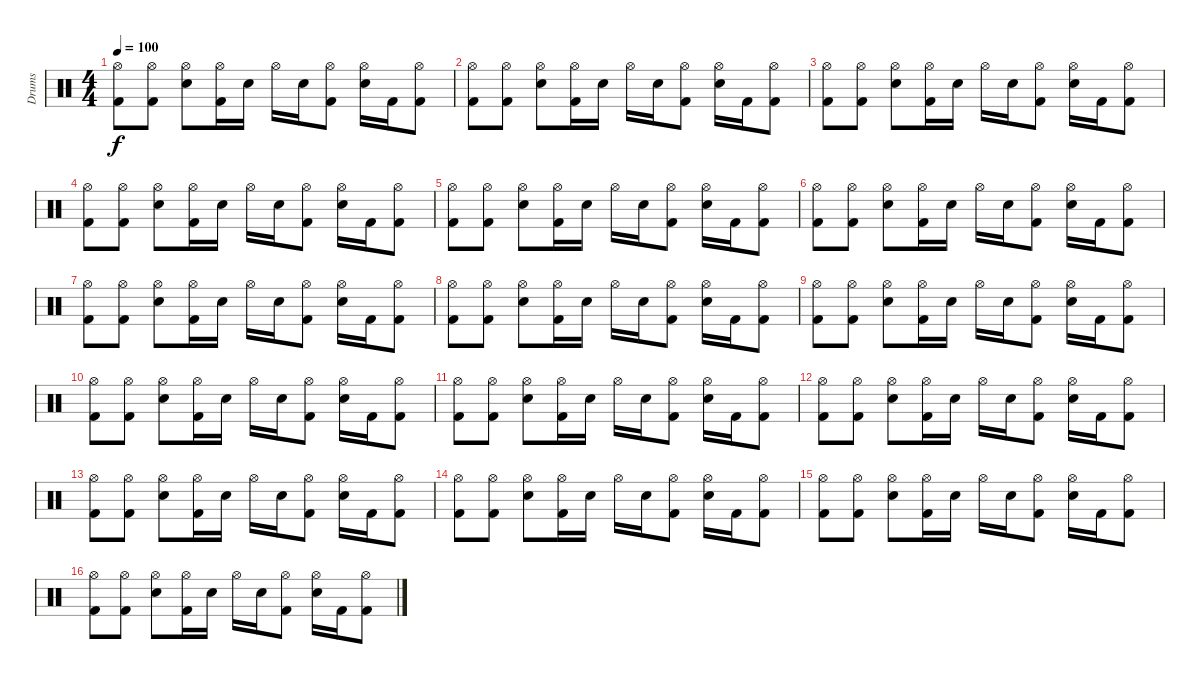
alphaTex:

\track ("Drums" "Drums") {instrument percussion}
\staff {score}
\articulation defaults
\ts (4 4)
\tempo 100
\clef neutral
\ks c
("Hi-Hat (open)" "Kick (hit) 2").8{dy f} ("Hi-Hat (open)" "Kick (hit) 2").8 ("Hi-Hat (open)" "Snare (hit) 2").8 ("Hi-Hat (open)" "Kick (hit) 2").16 "Snare (hit) 2".16 "Hi-Hat (open)".16 "Snare (hit) 2".16 ("Hi-Hat (open)" "Kick (hit) 2").8 ("Hi-Hat (open)" "Snare (hit) 2").16 "Kick (hit) 2".16 ("Hi-Hat (open)" "Kick (hit) 2").8 |
("Hi-Hat (open)" "Kick (hit) 2").8 ("Hi-Hat (open)" "Kick (hit) 2").8 ("Hi-Hat (open)" "Snare (hit) 2").8 ("Hi-Hat (open)" "Kick (hit) 2").16 "Snare (hit) 2".16 "Hi-Hat (open)".16 "Snare (hit) 2".16 ("Hi-Hat (open)" "Kick (hit) 2").8 ("Hi-Hat (open)" "Snare (hit) 2").16 "Kick (hit) 2".16 ("Hi-Hat (open)" "Kick (hit) 2").8 |
("Hi-Hat (open)" "Kick (hit) 2").8 ("Hi-Hat (open)" "Kick (hit) 2").8 ("Hi-Hat (open)" "Snare (hit) 2").8 ("Hi-Hat (open)" "Kick (hit) 2").16 "Snare (hit) 2".16 "Hi-Hat (open)".16 "Snare (hit) 2".16 ("Hi-Hat (open)" "Kick (hit) 2").8 ("Hi-Hat (open)" "Snare (hit) 2").16 "Kick (hit) 2".16 ("Hi-Hat (open)" "Kick (hit) 2").8 |
("Hi-Hat (open)" "Kick (hit) 2").8 ("Hi-Hat (open)" "Kick (hit) 2").8 ("Hi-Hat (open)" "Snare (hit) 2").8 ("Hi-Hat (open)" "Kick (hit) 2").16 "Snare (hit) 2".16 "Hi-Hat (open)".16 "Snare (hit) 2".16 ("Hi-Hat (open)" "Kick (hit) 2").8 ("Hi-Hat (open)" "Snare (hit) 2").16 "Kick (hit) 2".16 ("Hi-Hat (open)" "Kick (hit) 2").8 |
("Hi-Hat (open)" "Kick (hit) 2").8 ("Hi-Hat (open)" "Kick (hit) 2").8 ("Hi-Hat (open)" "Snare (hit) 2").8 ("Hi-Hat (open)" "Kick (hit) 2").16 "Snare (hit) 2".16 "Hi-Hat (open)".16 "Snare (hit) 2".16 ("Hi-Hat (open)" "Kick (hit) 2").8 ("Hi-Hat (open)" "Snare (hit) 2").16 "Kick (hit) 2".16 ("Hi-Hat (open)" "Kick (hit) 2").8 |
("Hi-Hat (open)" "Kick (hit) 2").8 ("Hi-Hat (open)" "Kick (hit) 2").8 ("Hi-Hat (open)" "Snare (hit) 2").8 ("Hi-Hat (open)" "Kick (hit) 2").16 "Snare (hit) 2".16 "Hi-Hat (open)".16 "Snare (hit) 2".16 ("Hi-Hat (open)" "Kick (hit) 2").8 ("Hi-Hat (open)" "Snare (hit) 2").16 "Kick (hit) 2".16 ("Hi-Hat (open)" "Kick (hit) 2").8 |
("Hi-Hat (open)" "Kick (hit) 2").8 ("Hi-Hat (open)" "Kick (hit) 2").8 ("Hi-Hat (open)" "Snare (hit) 2").8 ("Hi-Hat (open)" "Kick (hit) 2").16 "Snare (hit) 2".16 "Hi-Hat (open)".16 "Snare (hit) 2".16 ("Hi-Hat (open)" "Kick (hit) 2").8 ("Hi-Hat (open)" "Snare (hit) 2").16 "Kick (hit) 2".16 ("Hi-Hat (open)" "Kick (hit) 2").8 |
("Hi-Hat (open)" "Kick (hit) 2").8 ("Hi-Hat (open)" "Kick (hit) 2").8 ("Hi-Hat (open)" "Snare (hit) 2").8 ("Hi-Hat (open)" "Kick (hit) 2").16 "Snare (hit) 2".16 "Hi-Hat (open)".16 "Snare (hit) 2".16 ("Hi-Hat (open)" "Kick (hit) 2").8 ("Hi-Hat (open)" "Snare (hit) 2").16 "Kick (hit) 2".16 ("Hi-Hat (open)" "Kick (hit) 2").8 |
("Hi-Hat (open)" "Kick (hit) 2").8 ("Hi-Hat (open)" "Kick (hit) 2").8 ("Hi-Hat (open)" "Snare (hit) 2").8 ("Hi-Hat (open)" "Kick (hit) 2").16 "Snare (hit) 2".16 "Hi-Hat (open)".16 "Snare (hit) 2".16 ("Hi-Hat (open)" "Kick (hit) 2").8 ("Hi-Hat (open)" "Snare (hit) 2").16 "Kick (hit) 2".16 ("Hi-Hat (open)" "Kick (hit) 2").8 |
("Hi-Hat (open)" "Kick (hit) 2").8 ("Hi-Hat (open)" "Kick (hit) 2").8 ("Hi-Hat (open)" "Snare (hit) 2").8 ("Hi-Hat (open)" "Kick (hit) 2").16 "Snare (hit) 2".16 "Hi-Hat (open)".16 "Snare (hit) 2".16 ("Hi-Hat (open)" "Kick (hit) 2").8 ("Hi-Hat (open)" "Snare (hit) 2").16 "Kick (hit) 2".16 ("Hi-Hat (open)" "Kick (hit) 2").8 |
("Hi-Hat (open)" "Kick (hit) 2").8 ("Hi-Hat (open)" "Kick (hit) 2").8 ("Hi-Hat (open)" "Snare (hit) 2").8 ("Hi-Hat (open)" "Kick (hit) 2").16 "Snare (hit) 2".16 "Hi-Hat (open)".16 "Snare (hit) 2".16 ("Hi-Hat (open)" "Kick (hit) 2").8 ("Hi-Hat (open)" "Snare (hit) 2").16 "Kick (hit) 2".16 ("Hi-Hat (open)" "Kick (hit) 2").8 |
("Hi-Hat (open)" "Kick (hit) 2").8 ("Hi-Hat (open)" "Kick (hit) 2").8 ("Hi-Hat (open)" "Snare (hit) 2").8 ("Hi-Hat (open)" "Kick (hit) 2").16 "Snare (hit) 2".16 "Hi-Hat (open)".16 "Snare (hit) 2".16 ("Hi-Hat (open)" "Kick (hit) 2").8 ("Hi-Hat (open)" "Snare (hit) 2").16 "Kick (hit) 2".16 ("Hi-Hat (open)" "Kick (hit) 2").8 |
("Hi-Hat (open)" "Kick (hit) 2").8 ("Hi-Hat (open)" "Kick (hit) 2").8 ("Hi-Hat (open)" "Snare (hit) 2").8 ("Hi-Hat (open)" "Kick (hit) 2").16 "Snare (hit) 2".16 "Hi-Hat (open)".16 "Snare (hit) 2".16 ("Hi-Hat (open)" "Kick (hit) 2").8 ("Hi-Hat (open)" "Snare (hit) 2").16 "Kick (hit) 2".16 ("Hi-Hat (open)" "Kick (hit) 2").8 |
("Hi-Hat (open)" "Kick (hit) 2").8 ("Hi-Hat (open)" "Kick (hit) 2").8 ("Hi-Hat (open)" "Snare (hit) 2").8 ("Hi-Hat (open)" "Kick (hit) 2").16 "Snare (hit) 2".16 "Hi-Hat (open)".16 "Snare (hit) 2".16 ("Hi-Hat (open)" "Kick (hit) 2").8 ("Hi-Hat (open)" "Snare (hit) 2").16 "Kick (hit) 2".16 ("Hi-Hat (open)" "Kick (hit) 2").8 |
("Hi-Hat (open)" "Kick (hit) 2").8 ("Hi-Hat (open)" "Kick (hit) 2").8 ("Hi-Hat (open)" "Snare (hit) 2").8 ("Hi-Hat (open)" "Kick (hit) 2").16 "Snare (hit) 2".16 "Hi-Hat (open)".16 "Snare (hit) 2".16 ("Hi-Hat (open)" "Kick (hit) 2").8 ("Hi-Hat (open)" "Snare (hit) 2").16 "Kick (hit) 2".16 ("Hi-Hat (open)" "Kick (hit) 2").8 |
("Hi-Hat (open)" "Kick (hit) 2").8 ("Hi-Hat (open)" "Kick (hit) 2").8 ("Hi-Hat (open)" "Snare (hit) 2").8 ("Hi-Hat (open)" "Kick (hit) 2").16 "Snare (hit) 2".16 "Hi-Hat (open)".16 "Snare (hit) 2".16 ("Hi-Hat (open)" "Kick (hit) 2").8 ("Hi-Hat (open)" "Snare (hit) 2").16 "Kick (hit) 2".16 ("Hi-Hat (open)" "Kick (hit) 2").8
